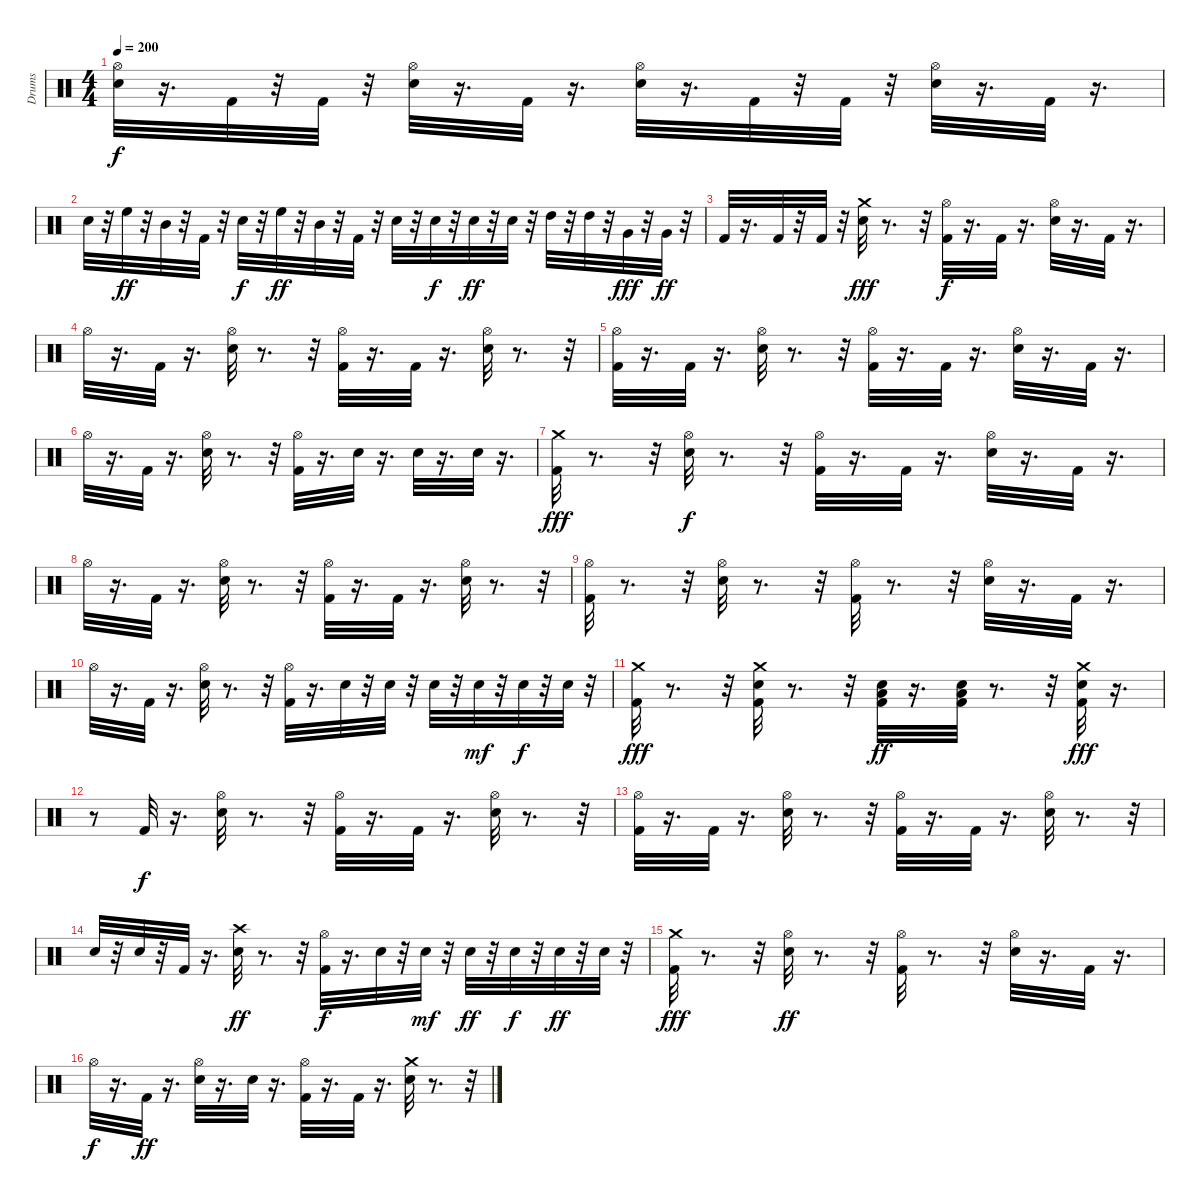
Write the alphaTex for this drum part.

\track ("Drums" "Drums") {instrument percussion}
\staff {score}
\articulation defaults
\ts (4 4)
\tempo 200
\clef neutral
\ks c
("Hi-Hat (open)" "Snare (hit) 2").32{dy f} r.16{d} "Kick (hit) 2".32 r.32 "Kick (hit) 2".32 r.32 ("Hi-Hat (open)" "Snare (hit) 2").32 r.16{d} "Kick (hit) 2".32 r.16{d} ("Hi-Hat (open)" "Snare (hit) 2").32 r.16{d} "Kick (hit) 2".32 r.32 "Kick (hit) 2".32 r.32 ("Hi-Hat (open)" "Snare (hit) 2").32 r.16{d} "Kick (hit) 2".32 r.16{d} |
"Snare (hit) 2".32 r.32 "High Floor Tom (hit)".32{dy ff} r.32 "Mid Tom (hit)".32 r.32 "Kick (hit) 2".32 r.32 "Snare (hit) 2".32{dy f} r.32 "High Floor Tom (hit)".32{dy ff} r.32 "Mid Tom (hit)".32 r.32 "Kick (hit) 2".32 r.32 "Snare (hit) 2".32 r.32 "Snare (hit) 2".32{dy f} r.32 "Snare (hit) 2".32{dy ff} r.32 "Snare (hit) 2".32 r.32 "High Tom (hit)".32 r.32 "High Tom (hit)".32 r.32 "Very Low Tom (hit)".32{dy fff} r.32 "Very Low Tom (hit)".32{dy ff} r.32 |
"Kick (hit) 2".32 r.16{d} "Kick (hit) 2".32 r.32 "Kick (hit) 2".32 r.32 ("Crash medium (hit)" "Snare (hit) 2").32{dy fff} r.8{d} r.32 ("Hi-Hat (open)" "Kick (hit) 2").32{dy f} r.16{d} "Kick (hit) 2".32 r.16{d} ("Hi-Hat (open)" "Snare (hit) 2").32 r.16{d} "Kick (hit) 2".32 r.16{d} |
"Hi-Hat (open)".32 r.16{d} "Kick (hit) 2".32 r.16{d} ("Hi-Hat (open)" "Snare (hit) 2").32 r.8{d} r.32 ("Hi-Hat (open)" "Kick (hit) 2").32 r.16{d} "Kick (hit) 2".32 r.16{d} ("Hi-Hat (open)" "Snare (hit) 2").32 r.8{d} r.32 |
("Hi-Hat (open)" "Kick (hit) 2").32 r.16{d} "Kick (hit) 2".32 r.16{d} ("Hi-Hat (open)" "Snare (hit) 2").32 r.8{d} r.32 ("Hi-Hat (open)" "Kick (hit) 2").32 r.16{d} "Kick (hit) 2".32 r.16{d} ("Hi-Hat (open)" "Snare (hit) 2").32 r.16{d} "Kick (hit) 2".32 r.16{d} |
"Hi-Hat (open)".32 r.16{d} "Kick (hit) 2".32 r.16{d} ("Hi-Hat (open)" "Snare (hit) 2").32 r.8{d} r.32 ("Hi-Hat (open)" "Kick (hit) 2").32 r.16{d} "Snare (hit) 2".32 r.16{d} "Snare (hit) 2".32 r.16{d} "Snare (hit) 2".32 r.16{d} |
("Crash medium (hit)" "Kick (hit) 2").32{dy fff} r.8{d} r.32 ("Hi-Hat (open)" "Snare (hit) 2").32{dy f} r.8{d} r.32 ("Hi-Hat (open)" "Kick (hit) 2").32 r.16{d} "Kick (hit) 2".32 r.16{d} ("Hi-Hat (open)" "Snare (hit) 2").32 r.16{d} "Kick (hit) 2".32 r.16{d} |
"Hi-Hat (open)".32 r.16{d} "Kick (hit) 2".32 r.16{d} ("Hi-Hat (open)" "Snare (hit) 2").32 r.8{d} r.32 ("Hi-Hat (open)" "Kick (hit) 2").32 r.16{d} "Kick (hit) 2".32 r.16{d} ("Hi-Hat (open)" "Snare (hit) 2").32 r.8{d} r.32 |
("Hi-Hat (open)" "Kick (hit) 2").32 r.8{d} r.32 ("Hi-Hat (open)" "Snare (hit) 2").32 r.8{d} r.32 ("Hi-Hat (open)" "Kick (hit) 2").32 r.8{d} r.32 ("Hi-Hat (open)" "Snare (hit) 2").32 r.16{d} "Kick (hit) 2".32 r.16{d} |
"Hi-Hat (open)".32 r.16{d} "Kick (hit) 2".32 r.16{d} ("Hi-Hat (open)" "Snare (hit) 2").32 r.8{d} r.32 ("Hi-Hat (open)" "Kick (hit) 2").32 r.16{d} "Snare (hit) 2".32 r.32 "Snare (hit) 2".32 r.32 "Snare (hit) 2".32 r.32 "Snare (hit) 2".32{dy mf} r.32 "Snare (hit) 2".32{dy f} r.32 "Snare (hit) 2".32 r.32 |
("Crash medium (hit)" "Kick (hit) 2").32{dy fff} r.8{d} r.32 ("Crash medium (hit)" "Snare (hit) 2" "Kick (hit) 2").32 r.8{d} r.32 ("Low Floor Tom (hit)" "Kick (hit) 2" "Snare (hit) 2").32{dy ff} r.16{d} ("Low Floor Tom (hit)" "Kick (hit) 2" "Snare (hit) 2").32 r.8{d} r.32 ("Crash medium (hit)" "Snare (hit) 2" "Kick (hit) 2").32{dy fff} r.16{d} |
r.8 "Kick (hit) 2".32{dy f} r.16{d} ("Hi-Hat (open)" "Snare (hit) 2").32 r.8{d} r.32 ("Hi-Hat (open)" "Kick (hit) 2").32 r.16{d} "Kick (hit) 2".32 r.16{d} ("Hi-Hat (open)" "Snare (hit) 2").32 r.8{d} r.32 |
("Hi-Hat (open)" "Kick (hit) 2").32 r.16{d} "Kick (hit) 2".32 r.16{d} ("Hi-Hat (open)" "Snare (hit) 2").32 r.8{d} r.32 ("Hi-Hat (open)" "Kick (hit) 2").32 r.16{d} "Kick (hit) 2".32 r.16{d} ("Hi-Hat (open)" "Snare (hit) 2").32 r.8{d} r.32 |
"Snare (hit) 2".32 r.32 "Snare (hit) 2".32 r.32 "Kick (hit) 2".32 r.16{d} ("Crash high (hit)" "Snare (hit) 2").32{dy ff} r.8{d} r.32 ("Kick (hit) 2" "Hi-Hat (open)").32{dy f} r.16{d} "Snare (hit) 2".32 r.32 "Snare (hit) 2".32{dy mf} r.32 "Snare (hit) 2".32{dy ff} r.32 "Snare (hit) 2".32{dy f} r.32 "Snare (hit) 2".32{dy ff} r.32 "Snare (hit) 2".32 r.32 |
("Crash medium (hit)" "Kick (hit) 2").32{dy fff} r.8{d} r.32 ("Hi-Hat (open)" "Snare (hit) 2").32{dy ff} r.8{d} r.32 ("Hi-Hat (open)" "Kick (hit) 2").32 r.8{d} r.32 ("Hi-Hat (open)" "Snare (hit) 2").32 r.16{d} "Kick (hit) 2".32 r.16{d} |
"Hi-Hat (open)".32{dy f} r.16{d} "Kick (hit) 2".32{dy ff} r.16{d} ("Hi-Hat (open)" "Snare (hit) 2").32 r.16{d} "Snare (hit) 2".32 r.16{d} ("Hi-Hat (open)" "Kick (hit) 2").32 r.16{d} "Kick (hit) 2".32 r.16{d} ("Crash medium (hit)" "Snare (hit) 2").32 r.8{d} r.32
